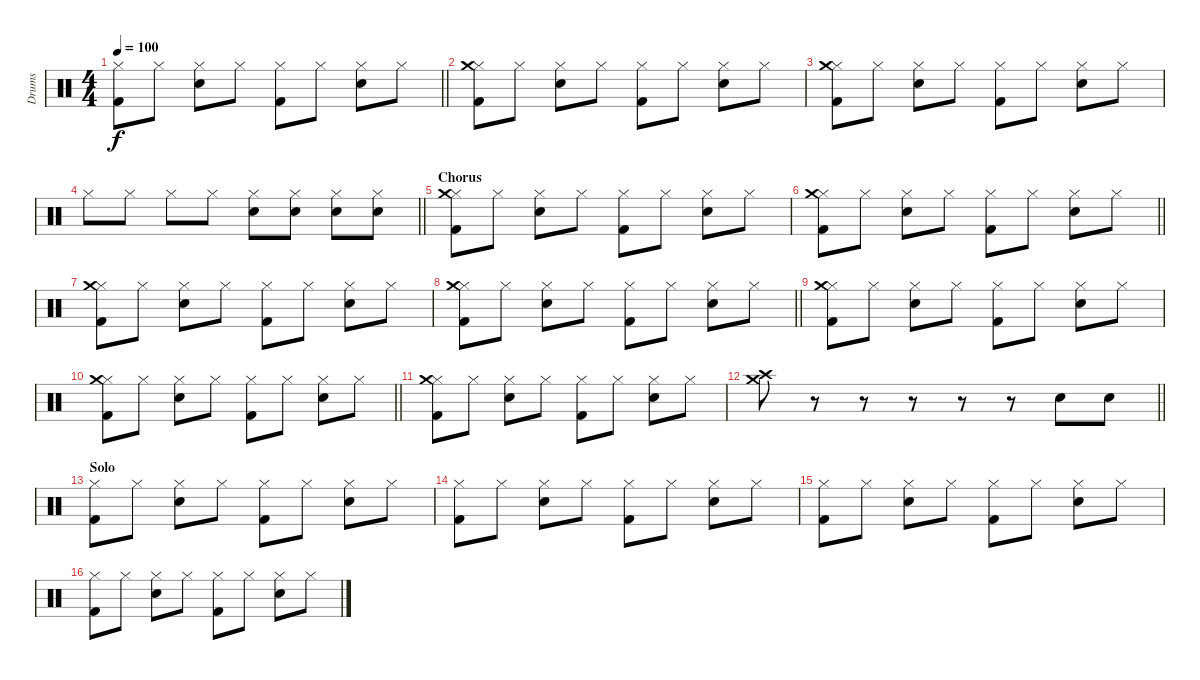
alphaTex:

\track ("Drums" "Drums") {instrument percussion}
\staff {score}
\articulation defaults
\ts (4 4)
\tempo 100
\clef neutral
\barLineRight lightlight
\ks c
("Hi-Hat (closed)" "Kick (hit) 2").8{dy f} "Hi-Hat (closed)".8 ("Hi-Hat (closed)" "Snare (hit) 2").8 "Hi-Hat (closed)".8 ("Hi-Hat (closed)" "Kick (hit) 2").8 "Hi-Hat (closed)".8 ("Hi-Hat (closed)" "Snare (hit) 2").8 "Hi-Hat (closed)".8 |
("Hi-Hat (closed)" "Kick (hit) 2" "Crash medium (hit)").8 "Hi-Hat (closed)".8 ("Hi-Hat (closed)" "Snare (hit) 2").8 "Hi-Hat (closed)".8 ("Hi-Hat (closed)" "Kick (hit) 2").8 "Hi-Hat (closed)".8 ("Hi-Hat (closed)" "Snare (hit) 2").8 "Hi-Hat (closed)".8 |
("Hi-Hat (closed)" "Kick (hit) 2" "Crash medium (hit)").8 "Hi-Hat (closed)".8 ("Hi-Hat (closed)" "Snare (hit) 2").8 "Hi-Hat (closed)".8 ("Hi-Hat (closed)" "Kick (hit) 2").8 "Hi-Hat (closed)".8 ("Hi-Hat (closed)" "Snare (hit) 2").8 "Hi-Hat (closed)".8 |
\barLineRight lightlight "Hi-Hat (closed)".8 "Hi-Hat (closed)".8 "Hi-Hat (closed)".8 "Hi-Hat (closed)".8
("Hi-Hat (closed)" "Snare (hit) 2").8 ("Hi-Hat (closed)" "Snare (hit) 2").8 ("Hi-Hat (closed)" "Snare (hit) 2").8 ("Hi-Hat (closed)" "Snare (hit) 2").8 |
\section ("" "Chorus")
("Hi-Hat (closed)" "Kick (hit) 2" "Crash medium (hit)").8 "Hi-Hat (closed)".8 ("Hi-Hat (closed)" "Snare (hit) 2").8 "Hi-Hat (closed)".8 ("Hi-Hat (closed)" "Kick (hit) 2").8 "Hi-Hat (closed)".8 ("Hi-Hat (closed)" "Snare (hit) 2").8 "Hi-Hat (closed)".8 |
\barLineRight lightlight
("Hi-Hat (closed)" "Kick (hit) 2" "Crash medium (hit)").8 "Hi-Hat (closed)".8 ("Hi-Hat (closed)" "Snare (hit) 2").8 "Hi-Hat (closed)".8 ("Hi-Hat (closed)" "Kick (hit) 2").8 "Hi-Hat (closed)".8 ("Hi-Hat (closed)" "Snare (hit) 2").8 "Hi-Hat (closed)".8 |
("Hi-Hat (closed)" "Kick (hit) 2" "Crash medium (hit)").8 "Hi-Hat (closed)".8 ("Hi-Hat (closed)" "Snare (hit) 2").8 "Hi-Hat (closed)".8 ("Hi-Hat (closed)" "Kick (hit) 2").8 "Hi-Hat (closed)".8 ("Hi-Hat (closed)" "Snare (hit) 2").8 "Hi-Hat (closed)".8 |
\barLineRight lightlight
("Hi-Hat (closed)" "Kick (hit) 2" "Crash medium (hit)").8 "Hi-Hat (closed)".8 ("Hi-Hat (closed)" "Snare (hit) 2").8 "Hi-Hat (closed)".8 ("Hi-Hat (closed)" "Kick (hit) 2").8 "Hi-Hat (closed)".8 ("Hi-Hat (closed)" "Snare (hit) 2").8 "Hi-Hat (closed)".8 |
("Hi-Hat (closed)" "Kick (hit) 2" "Crash medium (hit)").8 "Hi-Hat (closed)".8 ("Hi-Hat (closed)" "Snare (hit) 2").8 "Hi-Hat (closed)".8 ("Hi-Hat (closed)" "Kick (hit) 2").8 "Hi-Hat (closed)".8 ("Hi-Hat (closed)" "Snare (hit) 2").8 "Hi-Hat (closed)".8 |
\barLineRight lightlight
("Hi-Hat (closed)" "Kick (hit) 2" "Crash medium (hit)").8 "Hi-Hat (closed)".8 ("Hi-Hat (closed)" "Snare (hit) 2").8 "Hi-Hat (closed)".8 ("Hi-Hat (closed)" "Kick (hit) 2").8 "Hi-Hat (closed)".8 ("Hi-Hat (closed)" "Snare (hit) 2").8 "Hi-Hat (closed)".8 |
("Hi-Hat (closed)" "Kick (hit) 2" "Crash medium (hit)").8 "Hi-Hat (closed)".8 ("Hi-Hat (closed)" "Snare (hit) 2").8 "Hi-Hat (closed)".8 ("Hi-Hat (closed)" "Kick (hit) 2").8 "Hi-Hat (closed)".8 ("Hi-Hat (closed)" "Snare (hit) 2").8 "Hi-Hat (closed)".8 |
\barLineRight lightlight
("Crash high (hit)" "Crash medium (hit)").8 r.8 r.8 r.8 r.8 r.8 "Snare (hit) 2".8 "Snare (hit) 2".8 |
\section ("" "Solo")
("Hi-Hat (closed)" "Kick (hit) 2").8 "Hi-Hat (closed)".8 ("Hi-Hat (closed)" "Snare (hit) 2").8 "Hi-Hat (closed)".8 ("Hi-Hat (closed)" "Kick (hit) 2").8 "Hi-Hat (closed)".8 ("Hi-Hat (closed)" "Snare (hit) 2").8 "Hi-Hat (closed)".8 |
("Hi-Hat (closed)" "Kick (hit) 2").8 "Hi-Hat (closed)".8 ("Hi-Hat (closed)" "Snare (hit) 2").8 "Hi-Hat (closed)".8 ("Hi-Hat (closed)" "Kick (hit) 2").8 "Hi-Hat (closed)".8 ("Hi-Hat (closed)" "Snare (hit) 2").8 "Hi-Hat (closed)".8 |
("Hi-Hat (closed)" "Kick (hit) 2").8 "Hi-Hat (closed)".8 ("Hi-Hat (closed)" "Snare (hit) 2").8 "Hi-Hat (closed)".8 ("Hi-Hat (closed)" "Kick (hit) 2").8 "Hi-Hat (closed)".8 ("Hi-Hat (closed)" "Snare (hit) 2").8 "Hi-Hat (closed)".8 |
("Hi-Hat (closed)" "Kick (hit) 2").8 "Hi-Hat (closed)".8 ("Hi-Hat (closed)" "Snare (hit) 2").8 "Hi-Hat (closed)".8 ("Hi-Hat (closed)" "Kick (hit) 2").8 "Hi-Hat (closed)".8 ("Hi-Hat (closed)" "Snare (hit) 2").8 "Hi-Hat (closed)".8
